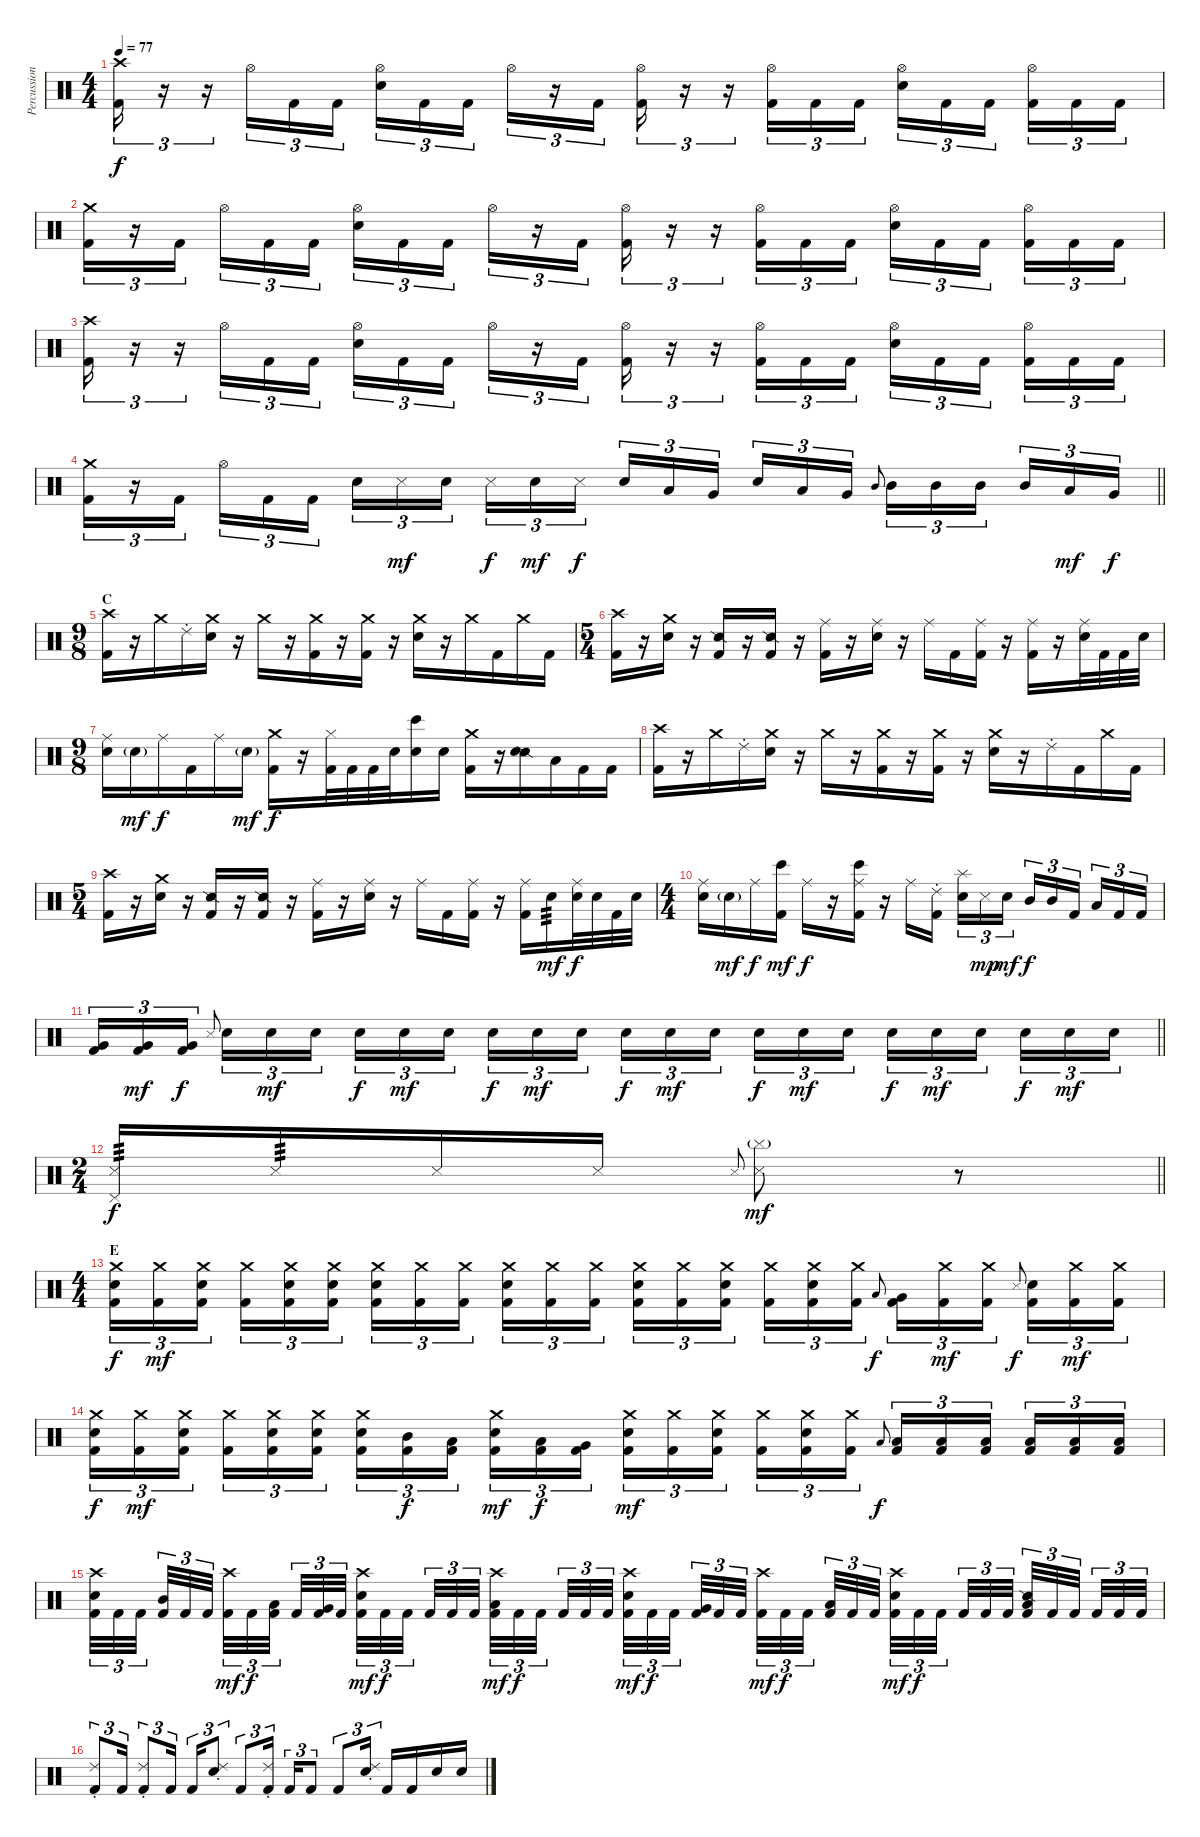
\track ("Percussion" "Percussion") {solo instrument percussion}
\staff {score}
\articulation defaults
\ts (4 4)
\tempo 77
\clef neutral
\ks c
("Crash high (hit)" "Kick (hit) 2").16{tu (3 2) dy f} r.16{tu (3 2)} r.16{tu (3 2)} "Hi-Hat (open)".16{tu (3 2)} "Kick (hit) 2".16{tu (3 2)} "Kick (hit) 2".16{tu (3 2)} ("Hi-Hat (open)" "Snare (hit) 2").16{tu (3 2)} "Kick (hit) 2".16{tu (3 2)} "Kick (hit) 2".16{tu (3 2) beam splitsecondary} "Hi-Hat (open)".16{tu (3 2)} r.16{tu (3 2)} "Kick (hit) 2".16{tu (3 2)} ("Hi-Hat (open)" "Kick (hit) 2").16{tu (3 2)} r.16{tu (3 2)} r.16{tu (3 2)} ("Hi-Hat (open)" "Kick (hit) 2").16{tu (3 2)} "Kick (hit) 2".16{tu (3 2)} "Kick (hit) 2".16{tu (3 2)} ("Hi-Hat (open)" "Snare (hit) 2").16{tu (3 2)} "Kick (hit) 2".16{tu (3 2)} "Kick (hit) 2".16{tu (3 2) beam splitsecondary} ("Hi-Hat (open)" "Kick (hit) 2").16{tu (3 2)} "Kick (hit) 2".16{tu (3 2)} "Kick (hit) 2".16{tu (3 2)} |
("Crash medium (hit)" "Kick (hit) 2").16{tu (3 2)} r.16{tu (3 2)} "Kick (hit) 2".16{tu (3 2) beam splitsecondary} "Hi-Hat (open)".16{tu (3 2)} "Kick (hit) 2".16{tu (3 2)} "Kick (hit) 2".16{tu (3 2)} ("Hi-Hat (open)" "Snare (hit) 2").16{tu (3 2)} "Kick (hit) 2".16{tu (3 2)} "Kick (hit) 2".16{tu (3 2) beam splitsecondary} "Hi-Hat (open)".16{tu (3 2)} r.16{tu (3 2)} "Kick (hit) 2".16{tu (3 2)} ("Hi-Hat (open)" "Kick (hit) 2").16{tu (3 2)} r.16{tu (3 2)} r.16{tu (3 2)} ("Hi-Hat (open)" "Kick (hit) 2").16{tu (3 2)} "Kick (hit) 2".16{tu (3 2)} "Kick (hit) 2".16{tu (3 2)} ("Hi-Hat (open)" "Snare (hit) 2").16{tu (3 2)} "Kick (hit) 2".16{tu (3 2)} "Kick (hit) 2".16{tu (3 2) beam splitsecondary} ("Hi-Hat (open)" "Kick (hit) 2").16{tu (3 2)} "Kick (hit) 2".16{tu (3 2)} "Kick (hit) 2".16{tu (3 2)} |
("Crash high (hit)" "Kick (hit) 2").16{tu (3 2)} r.16{tu (3 2)} r.16{tu (3 2)} "Hi-Hat (open)".16{tu (3 2)} "Kick (hit) 2".16{tu (3 2)} "Kick (hit) 2".16{tu (3 2)} ("Hi-Hat (open)" "Snare (hit) 2").16{tu (3 2)} "Kick (hit) 2".16{tu (3 2)} "Kick (hit) 2".16{tu (3 2) beam splitsecondary} "Hi-Hat (open)".16{tu (3 2)} r.16{tu (3 2)} "Kick (hit) 2".16{tu (3 2)} ("Hi-Hat (open)" "Kick (hit) 2").16{tu (3 2)} r.16{tu (3 2)} r.16{tu (3 2)} ("Hi-Hat (open)" "Kick (hit) 2").16{tu (3 2)} "Kick (hit) 2".16{tu (3 2)} "Kick (hit) 2".16{tu (3 2)} ("Hi-Hat (open)" "Snare (hit) 2").16{tu (3 2)} "Kick (hit) 2".16{tu (3 2)} "Kick (hit) 2".16{tu (3 2) beam splitsecondary} ("Hi-Hat (open)" "Kick (hit) 2").16{tu (3 2)} "Kick (hit) 2".16{tu (3 2)} "Kick (hit) 2".16{tu (3 2)} |
\barLineRight lightlight
("Crash medium (hit)" "Kick (hit) 2").16{tu (3 2)} r.16{tu (3 2)} "Kick (hit) 2".16{tu (3 2) beam splitsecondary} "Hi-Hat (open)".16{tu (3 2)} "Kick (hit) 2".16{tu (3 2)} "Kick (hit) 2".16{tu (3 2)} "Snare (hit) 2".16{tu (3 2)} "Metronome (hit)".16{tu (3 2) dy mf} "Snare (hit) 2".16{tu (3 2) beam splitsecondary} "Metronome (hit)".16{tu (3 2) dy f} "Snare (hit) 2".16{tu (3 2) dy mf} "Metronome (hit)".16{tu (3 2) dy f} "Snare (hit) 2".16{tu (3 2)} "Low Tom (hit)".16{tu (3 2)} "Very Low Tom (hit)".16{tu (3 2) beam splitsecondary} "Snare (hit) 2".16{tu (3 2)} "Low Tom (hit)".16{tu (3 2)} "Very Low Tom (hit)".16{tu (3 2)} "Mid Tom (hit)".8{gr onbeat} "Mid Tom (hit)".16{tu (3 2)} "Mid Tom (hit)".16{tu (3 2)} "Mid Tom (hit)".16{tu (3 2) beam splitsecondary} "Mid Tom (hit)".16{tu (3 2)} "Low Tom (hit)".16{tu (3 2) dy mf} "Very Low Tom (hit)".16{tu (3 2) dy f} |
\ts (9 8)
\section ("" "C")
("Crash high (hit)" "Kick (hit) 2").16 r.16 "Crash medium (hit)".16 "Ride (choke) 2".16 ("Crash medium (hit)" "Snare (hit) 2").16 r.16 "Crash medium (hit)".16 r.16 ("Crash medium (hit)" "Kick (hit) 2").16 r.16 ("Crash medium (hit)" "Kick (hit) 2").16 r.16 ("Crash medium (hit)" "Snare (hit) 2").16 r.16 "Crash medium (hit)".16 "Kick (hit) 2".16 "Crash medium (hit)".16 "Kick (hit) 2".16 |
\ts (5 4)
("Crash high (hit)" "Kick (hit) 2").16 r.16 ("Crash medium (hit)" "Snare (hit) 2").16 r.16 ("Snare (side stick) 2" "Kick (hit) 2").16 r.16 ("Snare (side stick) 2" "Kick (hit) 2").16 r.16 ("Ride (middle)" "Kick (hit) 2").16 r.16 ("Ride (middle)" "Snare (hit) 2").16 r.16 "Ride (middle)".16 "Kick (hit) 2".16 ("Ride (middle)" "Kick (hit) 2").16 r.16 ("Ride (middle)" "Kick (hit) 2").16 r.16 ("Ride (middle)" "Snare (hit) 2").32 "Kick (hit) 2".32 "Kick (hit) 2".32 "Snare (hit) 2".32 |
\ts (9 8)
("Ride (middle)" "Snare (hit) 2").16 "Snare (hit) 2"{g}.16{dy mf} "Ride (middle)".16{dy f} "Kick (hit) 2".16 "Ride (middle)".16 "Snare (hit) 2"{g}.16{dy mf} ("Crash medium (hit)" "Kick (hit) 2").16{dy f} r.16 ("Hi-Hat (closed)" "Kick (hit) 2").32 "Kick (hit) 2".32 "Kick (hit) 2".32 "Snare (hit) 2".32 ("Bongo High (hit)" "Snare (hit) 2").16 "Snare (hit) 2".16 ("Crash medium (hit)" "Kick (hit) 2").16 r.16 ("Snare (side stick) 2" "Snare (hit) 2").16 "Low Tom (hit)".16 "Kick (hit) 2".16 "Kick (hit) 2".16 |
("Crash high (hit)" "Kick (hit) 2").16 r.16 "Crash medium (hit)".16 "Ride (choke) 2".16 ("Crash medium (hit)" "Snare (hit) 2").16 r.16 "Crash medium (hit)".16 r.16 ("Crash medium (hit)" "Kick (hit) 2").16 r.16 ("Crash medium (hit)" "Kick (hit) 2").16 r.16 ("Crash medium (hit)" "Snare (hit) 2").16 r.16 "Ride (choke) 2".16 "Kick (hit) 2".16 "Crash medium (hit)".16 "Kick (hit) 2".16 |
\ts (5 4)
("Crash high (hit)" "Kick (hit) 2").16 r.16 ("Crash medium (hit)" "Snare (hit) 2").16 r.16 ("Snare (side stick) 2" "Kick (hit) 2").16 r.16 ("Snare (side stick) 2" "Kick (hit) 2").16 r.16 ("Ride (middle)" "Kick (hit) 2").16 r.16 ("Ride (middle)" "Snare (hit) 2").16 r.16 "Ride (middle)".16 "Kick (hit) 2".16 ("Ride (middle)" "Kick (hit) 2").16 r.16 ("Ride (middle)" "Kick (hit) 2").16 "Snare (hit) 2".16{tp 3 dy mf} ("Ride (middle)" "Snare (hit) 2").32{dy f} "Snare (hit) 2".32 "Kick (hit) 2".32 "Snare (hit) 2".32 |
\ts (4 4)
("Ride (middle)" "Snare (hit) 2").16 "Snare (hit) 2"{g}.16{dy mf} "Ride (middle)".16{dy f} ("Bongo High (hit)" "Kick (hit) 2").16{dy mf} "Ride (middle)".16{dy f} r.16 ("Ride (middle)" "Bongo High (hit)" "Kick (hit) 2").16 r.16 "Ride (middle)".16 ("Ride (choke) 2" "Kick (hit) 2").16{beam splitsecondary} ("Splash (hit)" "Snare (hit) 2").16{tu (3 2)} "Metronome (hit)".16{tu (3 2) dy mp} "Snare (hit) 2".16{tu (3 2) dy mf} "Mid Tom (hit)".16{tu (3 2) dy f} "Mid Tom (hit)".16{tu (3 2)} "Kick (hit) 2".16{tu (3 2) beam splitsecondary} "Low Tom (hit)".16{tu (3 2)} "Kick (hit) 2".16{tu (3 2)} "Kick (hit) 2".16{tu (3 2)} |
\barLineRight lightlight
("Very Low Tom (hit)" "Kick (hit) 2").16{tu (3 2)} ("Very Low Tom (hit)" "Kick (hit) 2").16{tu (3 2) dy mf} ("Very Low Tom (hit)" "Kick (hit) 2").16{tu (3 2) dy f} "Metronome (hit)".8{gr onbeat beam splitsecondary} "Snare (hit) 2".16{tu (3 2)} "Electric Snare (hit)".16{tu (3 2) dy mf} "Electric Snare (hit)".16{tu (3 2)} "Electric Snare (hit)".16{tu (3 2) dy f} "Electric Snare (hit)".16{tu (3 2) dy mf} "Electric Snare (hit)".16{tu (3 2) beam splitsecondary} "Electric Snare (hit)".16{tu (3 2) dy f} "Electric Snare (hit)".16{tu (3 2) dy mf} "Electric Snare (hit)".16{tu (3 2)} "Electric Snare (hit)".16{tu (3 2) dy f} "Electric Snare (hit)".16{tu (3 2) dy mf} "Electric Snare (hit)".16{tu (3 2) beam splitsecondary} "Electric Snare (hit)".16{tu (3 2) dy f} "Electric Snare (hit)".16{tu (3 2) dy mf} "Electric Snare (hit)".16{tu (3 2)} "Electric Snare (hit)".16{tu (3 2) dy f} "Electric Snare (hit)".16{tu (3 2) dy mf} "Electric Snare (hit)".16{tu (3 2) beam splitsecondary} "Electric Snare (hit)".16{tu (3 2) dy f} "Electric Snare (hit)".16{tu (3 2) dy mf} "Electric Snare (hit)".16{tu (3 2)} |
\ts (2 4)
\barLineRight lightlight
("Pedal Hi-Hat (hit)" "Snare (side stick) 3").16{tp 3 dy f} "Snare (side stick) 3".16{tp 3} "Snare (side stick) 3".16 "Snare (side stick) 3".16 "Snare (side stick) 3".8{gr onbeat} ("Cymbal (hit)"{g} "Snare (side stick) 3").8{dy mf} r.8 |
\ts (4 4)
\section ("" "E")
("Crash medium (hit)" "Snare (hit) 2" "Kick (hit) 2").16{tu (3 2) dy f} ("Crash medium (hit)" "Kick (hit) 2").16{tu (3 2) dy mf} ("Crash medium (hit)" "Snare (hit) 2" "Kick (hit) 2").16{tu (3 2) beam splitsecondary} ("Crash medium (hit)" "Kick (hit) 2").16{tu (3 2)} ("Crash medium (hit)" "Snare (hit) 2" "Kick (hit) 2").16{tu (3 2)} ("Crash medium (hit)" "Snare (hit) 2" "Kick (hit) 2").16{tu (3 2)} ("Crash medium (hit)" "Snare (hit) 2" "Kick (hit) 2").16{tu (3 2)} ("Crash medium (hit)" "Kick (hit) 2").16{tu (3 2)} ("Crash medium (hit)" "Kick (hit) 2").16{tu (3 2) beam splitsecondary} ("Crash medium (hit)" "Snare (hit) 2" "Kick (hit) 2").16{tu (3 2)} ("Crash medium (hit)" "Kick (hit) 2").16{tu (3 2)} ("Crash medium (hit)" "Kick (hit) 2").16{tu (3 2)} ("Crash medium (hit)" "Snare (hit) 2" "Kick (hit) 2").16{tu (3 2)} ("Crash medium (hit)" "Kick (hit) 2").16{tu (3 2)} ("Crash medium (hit)" "Snare (hit) 2" "Kick (hit) 2").16{tu (3 2) beam splitsecondary} ("Crash medium (hit)" "Kick (hit) 2").16{tu (3 2)} ("Crash medium (hit)" "Snare (hit) 2" "Kick (hit) 2").16{tu (3 2)} ("Crash medium (hit)" "Kick (hit) 2").16{tu (3 2)} "Low Tom (hit)".8{gr onbeat dy f} ("Very Low Tom (hit)" "Kick (hit) 2").16{tu (3 2)} ("Crash medium (hit)" "Kick (hit) 2").16{tu (3 2) dy mf} ("Crash medium (hit)" "Kick (hit) 2").16{tu (3 2)} "Metronome (hit)".8{gr onbeat dy f beam splitsecondary} ("Snare (hit) 2" "Kick (hit) 2").16{tu (3 2)} ("Crash medium (hit)" "Kick (hit) 2").16{tu (3 2) dy mf} ("Crash medium (hit)" "Kick (hit) 2").16{tu (3 2)} |
("Crash medium (hit)" "Snare (hit) 2" "Kick (hit) 2").16{tu (3 2) dy f} ("Crash medium (hit)" "Kick (hit) 2").16{tu (3 2) dy mf} ("Crash medium (hit)" "Snare (hit) 2" "Kick (hit) 2").16{tu (3 2) beam splitsecondary} ("Crash medium (hit)" "Kick (hit) 2").16{tu (3 2)} ("Crash medium (hit)" "Snare (hit) 2" "Kick (hit) 2").16{tu (3 2)} ("Crash medium (hit)" "Snare (hit) 2" "Kick (hit) 2").16{tu (3 2)} ("Crash medium (hit)" "Snare (hit) 2" "Kick (hit) 2").16{tu (3 2)} ("Mid Tom (hit)" "Kick (hit) 2").16{tu (3 2) dy f} ("Low Tom (hit)" "Kick (hit) 2").16{tu (3 2) beam splitsecondary} ("Crash medium (hit)" "Snare (hit) 2" "Kick (hit) 2").16{tu (3 2) dy mf} ("Low Tom (hit)" "Kick (hit) 2").16{tu (3 2) dy f} ("Very Low Tom (hit)" "Kick (hit) 2").16{tu (3 2)} ("Crash medium (hit)" "Snare (hit) 2" "Kick (hit) 2").16{tu (3 2) dy mf} ("Crash medium (hit)" "Kick (hit) 2").16{tu (3 2)} ("Crash medium (hit)" "Snare (hit) 2" "Kick (hit) 2").16{tu (3 2) beam splitsecondary} ("Crash medium (hit)" "Kick (hit) 2").16{tu (3 2)} ("Crash medium (hit)" "Snare (hit) 2" "Kick (hit) 2").16{tu (3 2)} ("Crash medium (hit)" "Kick (hit) 2").16{tu (3 2)} "Low Tom (hit)".8{gr onbeat dy f} ("Low Tom (hit)" "Kick (hit) 2").16{tu (3 2)} ("Low Tom (hit)" "Kick (hit) 2").16{tu (3 2)} ("Low Tom (hit)" "Kick (hit) 2").16{tu (3 2) beam splitsecondary} ("Low Tom (hit)" "Kick (hit) 2").16{tu (3 2)} ("Low Tom (hit)" "Kick (hit) 2").16{tu (3 2)} ("Low Tom (hit)" "Kick (hit) 2").16{tu (3 2)} |
("Crash high (hit)" "Snare (hit) 2" "Kick (hit) 2").32{tu (3 2)} "Kick (hit) 2".32{tu (3 2)} "Kick (hit) 2".32{tu (3 2) beam splitsecondary} ("Mid Tom (hit)" "Kick (hit) 2").32{tu (3 2)} "Kick (hit) 2".32{tu (3 2)} "Kick (hit) 2".32{tu (3 2) beam splitsecondary} ("Crash high (hit)" "Kick (hit) 2").32{tu (3 2) dy mf} "Kick (hit) 2".32{tu (3 2) dy f} ("Low Tom (hit)" "Kick (hit) 2").32{tu (3 2) beam splitsecondary} "Kick (hit) 2".32{tu (3 2)} ("Very Low Tom (hit)" "Kick (hit) 2").32{tu (3 2)} "Kick (hit) 2".32{tu (3 2)} ("Crash high (hit)" "Snare (hit) 2" "Kick (hit) 2").32{tu (3 2) dy mf} "Kick (hit) 2".32{tu (3 2) dy f} "Kick (hit) 2".32{tu (3 2) beam splitsecondary} "Kick (hit) 2".32{tu (3 2)} "Kick (hit) 2".32{tu (3 2)} "Kick (hit) 2".32{tu (3 2) beam splitsecondary} ("Crash high (hit)" "Low Tom (hit)" "Kick (hit) 2").32{tu (3 2) dy mf} "Kick (hit) 2".32{tu (3 2) dy f} "Kick (hit) 2".32{tu (3 2) beam splitsecondary} "Kick (hit) 2".32{tu (3 2)} "Kick (hit) 2".32{tu (3 2)} "Kick (hit) 2".32{tu (3 2)} ("Crash high (hit)" "Snare (hit) 2" "Kick (hit) 2").32{tu (3 2) dy mf} "Kick (hit) 2".32{tu (3 2) dy f} "Kick (hit) 2".32{tu (3 2) beam splitsecondary} ("Very Low Tom (hit)" "Kick (hit) 2").32{tu (3 2)} "Kick (hit) 2".32{tu (3 2)} "Kick (hit) 2".32{tu (3 2) beam splitsecondary} ("Crash high (hit)" "Kick (hit) 2").32{tu (3 2) dy mf} "Kick (hit) 2".32{tu (3 2) dy f} "Kick (hit) 2".32{tu (3 2) beam splitsecondary} ("Low Tom (hit)" "Kick (hit) 2").32{tu (3 2)} "Kick (hit) 2".32{tu (3 2)} "Kick (hit) 2".32{tu (3 2)} ("Crash high (hit)" "Snare (hit) 2" "Kick (hit) 2").32{tu (3 2) dy mf} "Kick (hit) 2".32{tu (3 2) dy f} "Kick (hit) 2".32{tu (3 2) beam splitsecondary} "Kick (hit) 2".32{tu (3 2)} "Kick (hit) 2".32{tu (3 2)} "Kick (hit) 2".32{tu (3 2) beam splitsecondary} ("Snare (side stick) 2" "Low Floor Tom (hit)" "Kick (hit) 2").32{tu (3 2)} "Kick (hit) 2".32{tu (3 2)} "Kick (hit) 2".32{tu (3 2) beam splitsecondary} "Kick (hit) 2".32{tu (3 2)} "Kick (hit) 2".32{tu (3 2)} "Kick (hit) 2".32{tu (3 2)} |
("Ride (choke) 2" "Kick (hit) 2").8{tu (3 2)} "Kick (hit) 2".16{tu (3 2)} ("Ride (choke) 2" "Kick (hit) 2").8{tu (3 2)} "Kick (hit) 2".16{tu (3 2)} "Kick (hit) 2".16{tu (3 2)} ("Ride (choke) 2" "Snare (hit) 2").8{tu (3 2)} "Kick (hit) 2".8{tu (3 2)} ("Ride (choke) 2" "Kick (hit) 2").16{tu (3 2)} "Kick (hit) 2".16{tu (3 2)} "Kick (hit) 2".8{tu (3 2)} "Kick (hit) 2".8{tu (3 2)} ("Ride (choke) 2" "Snare (hit) 2").16{tu (3 2)} "Kick (hit) 2".16 "Kick (hit) 2".16 "Snare (hit) 2".16 "Snare (hit) 2".16
